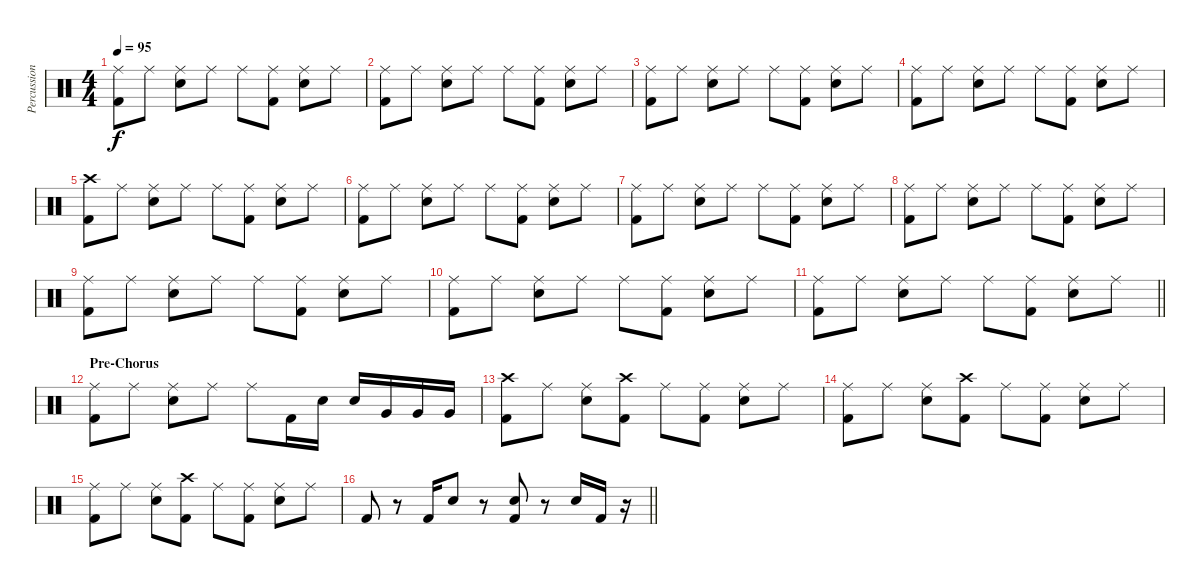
\track ("Percussion" "Percussion") {instrument percussion}
\staff {score}
\articulation defaults
\ts (4 4)
\tempo 95
\clef neutral
\ks c
("Ride (middle)" "Kick (hit) 2").8{dy f} "Ride (middle)".8 ("Ride (middle)" "Snare (hit) 2").8 "Ride (middle)".8 "Ride (middle)".8 ("Ride (middle)" "Kick (hit) 2").8 ("Ride (middle)" "Snare (hit) 2").8 "Ride (middle)".8 |
("Ride (middle)" "Kick (hit) 2").8 "Ride (middle)".8 ("Ride (middle)" "Snare (hit) 2").8 "Ride (middle)".8 "Ride (middle)".8 ("Ride (middle)" "Kick (hit) 2").8 ("Ride (middle)" "Snare (hit) 2").8 "Ride (middle)".8 |
("Ride (middle)" "Kick (hit) 2").8 "Ride (middle)".8 ("Ride (middle)" "Snare (hit) 2").8 "Ride (middle)".8 "Ride (middle)".8 ("Ride (middle)" "Kick (hit) 2").8 ("Ride (middle)" "Snare (hit) 2").8 "Ride (middle)".8 |
("Ride (middle)" "Kick (hit) 2").8 "Ride (middle)".8 ("Ride (middle)" "Snare (hit) 2").8 "Ride (middle)".8 "Ride (middle)".8 ("Ride (middle)" "Kick (hit) 2").8 ("Ride (middle)" "Snare (hit) 2").8 "Ride (middle)".8 |
("Crash high (hit)" "Kick (hit) 2").8 "Ride (middle)".8 ("Ride (middle)" "Snare (hit) 2").8 "Ride (middle)".8 "Ride (middle)".8 ("Ride (middle)" "Kick (hit) 2").8 ("Ride (middle)" "Snare (hit) 2").8 "Ride (middle)".8 |
("Ride (middle)" "Kick (hit) 2").8 "Ride (middle)".8 ("Ride (middle)" "Snare (hit) 2").8 "Ride (middle)".8 "Ride (middle)".8 ("Ride (middle)" "Kick (hit) 2").8 ("Ride (middle)" "Snare (hit) 2").8 "Ride (middle)".8 |
("Ride (middle)" "Kick (hit) 2").8 "Ride (middle)".8 ("Ride (middle)" "Snare (hit) 2").8 "Ride (middle)".8 "Ride (middle)".8 ("Ride (middle)" "Kick (hit) 2").8 ("Ride (middle)" "Snare (hit) 2").8 "Ride (middle)".8 |
("Ride (middle)" "Kick (hit) 2").8 "Ride (middle)".8 ("Ride (middle)" "Snare (hit) 2").8 "Ride (middle)".8 "Ride (middle)".8 ("Ride (middle)" "Kick (hit) 2").8 ("Ride (middle)" "Snare (hit) 2").8 "Ride (middle)".8 |
("Ride (middle)" "Kick (hit) 2").8 "Ride (middle)".8 ("Ride (middle)" "Snare (hit) 2").8 "Ride (middle)".8 "Ride (middle)".8 ("Ride (middle)" "Kick (hit) 2").8 ("Ride (middle)" "Snare (hit) 2").8 "Ride (middle)".8 |
("Ride (middle)" "Kick (hit) 2").8 "Ride (middle)".8 ("Ride (middle)" "Snare (hit) 2").8 "Ride (middle)".8 "Ride (middle)".8 ("Ride (middle)" "Kick (hit) 2").8 ("Ride (middle)" "Snare (hit) 2").8 "Ride (middle)".8 |
\barLineRight lightlight
("Ride (middle)" "Kick (hit) 2").8 "Ride (middle)".8 ("Ride (middle)" "Snare (hit) 2").8 "Ride (middle)".8 "Ride (middle)".8 ("Ride (middle)" "Kick (hit) 2").8 ("Ride (middle)" "Snare (hit) 2").8 "Ride (middle)".8 |
\section ("" "Pre-Chorus")
("Ride (middle)" "Kick (hit) 2").8 "Ride (middle)".8 ("Ride (middle)" "Snare (hit) 2").8 "Ride (middle)".8 "Ride (middle)".8 "Kick (hit) 2".16 "Snare (hit) 2".16 "Snare (hit) 2".16 "Very Low Tom (hit)".16 "Very Low Tom (hit)".16 "Very Low Tom (hit)".16 |
("Crash high (hit)" "Kick (hit) 2").8 "Ride (middle)".8 ("Ride (middle)" "Snare (hit) 2").8 ("Crash high (hit)" "Kick (hit) 2").8 "Ride (middle)".8 ("Ride (middle)" "Kick (hit) 2").8 ("Ride (middle)" "Snare (hit) 2").8 "Ride (middle)".8 |
("Ride (middle)" "Kick (hit) 2").8 "Ride (middle)".8 ("Ride (middle)" "Snare (hit) 2").8 ("Crash high (hit)" "Kick (hit) 2").8 "Ride (middle)".8 ("Ride (middle)" "Kick (hit) 2").8 ("Ride (middle)" "Snare (hit) 2").8 "Ride (middle)".8 |
("Ride (middle)" "Kick (hit) 2").8 "Ride (middle)".8 ("Ride (middle)" "Snare (hit) 2").8 ("Crash high (hit)" "Kick (hit) 2").8 "Ride (middle)".8 ("Ride (middle)" "Kick (hit) 2").8 ("Ride (middle)" "Snare (hit) 2").8 "Ride (middle)".8 |
\barLineRight lightlight "Kick (hit) 2".8
r.8 "Kick (hit) 2".16 "Snare (hit) 2".8 r.8 ("Snare (hit) 2" "Kick (hit) 2").8 r.8 "Snare (hit) 2".16 "Kick (hit) 2".16 r.16
